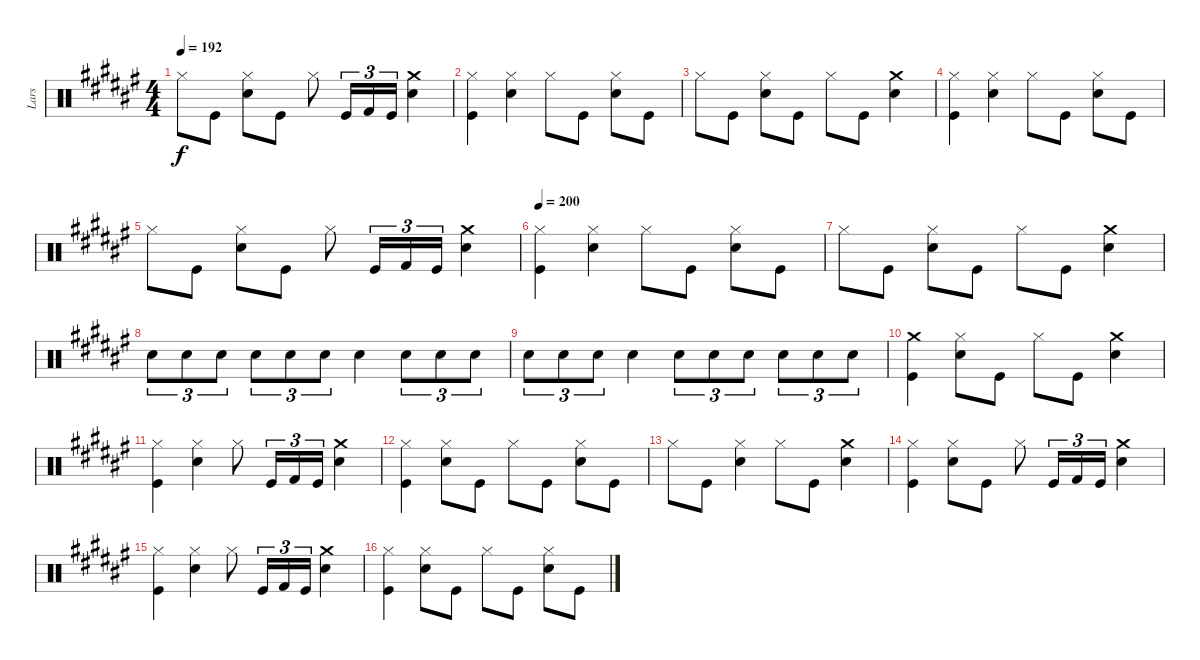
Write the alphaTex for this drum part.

\track ("Lars" "Lars") {instrument percussion}
\staff {score}
\articulation defaults
\ts (4 4)
\tempo 192
\clef neutral
\ks f# "Hi-Hat (closed)".8{dy f} "Kick (hit)".8
("Snare (hit) 2" "Hi-Hat (closed)").8 "Kick (hit)".8 "Hi-Hat (closed)".8 "Kick (hit)".16{tu (3 2)} "Kick (hit) 2".16{tu (3 2)} "Kick (hit)".16{tu (3 2)} ("Crash medium (hit)" "Snare (hit) 2").4 |
("Kick (hit)" "Hi-Hat (closed)").4 ("Hi-Hat (closed)" "Snare (hit) 2").4 "Hi-Hat (closed)".8 "Kick (hit)".8 ("Snare (hit) 2" "Hi-Hat (closed)").8 "Kick (hit)".8 |
"Hi-Hat (closed)".8 "Kick (hit)".8 ("Snare (hit) 2" "Hi-Hat (closed)").8 "Kick (hit)".8 "Hi-Hat (closed)".8 "Kick (hit)".8 ("Crash medium (hit)" "Snare (hit) 2").4 |
("Hi-Hat (closed)" "Kick (hit)").4 ("Snare (hit) 2" "Hi-Hat (closed)").4 "Hi-Hat (closed)".8 "Kick (hit)".8 ("Snare (hit) 2" "Hi-Hat (closed)").8 "Kick (hit)".8 |
"Hi-Hat (closed)".8 "Kick (hit)".8 ("Snare (hit) 2" "Hi-Hat (closed)").8 "Kick (hit)".8 "Hi-Hat (closed)".8 "Kick (hit)".16{tu (3 2)} "Kick (hit) 2".16{tu (3 2)} "Kick (hit)".16{tu (3 2)} ("Crash medium (hit)" "Snare (hit) 2").4 |
\tempo 200
("Kick (hit)" "Hi-Hat (closed)").4 ("Snare (hit) 2" "Hi-Hat (closed)").4 "Hi-Hat (closed)".8 "Kick (hit)".8 ("Snare (hit) 2" "Hi-Hat (closed)").8 "Kick (hit)".8 |
"Hi-Hat (closed)".8 "Kick (hit)".8 ("Snare (hit) 2" "Hi-Hat (closed)").8 "Kick (hit)".8 "Hi-Hat (closed)".8 "Kick (hit)".8 ("Crash medium (hit)" "Snare (hit) 2").4 |
"Snare (hit) 2".8{tu (3 2)} "Snare (hit) 2".8{tu (3 2)} "Snare (hit) 2".8{tu (3 2)} "Snare (hit) 2".8{tu (3 2)} "Snare (hit) 2".8{tu (3 2)} "Snare (hit) 2".8{tu (3 2)} "Snare (hit) 2".4 "Snare (hit) 2".8{tu (3 2)} "Snare (hit) 2".8{tu (3 2)} "Snare (hit) 2".8{tu (3 2)} |
"Snare (hit) 2".8{tu (3 2)} "Snare (hit) 2".8{tu (3 2)} "Snare (hit) 2".8{tu (3 2)} "Snare (hit) 2".4 "Snare (hit) 2".8{tu (3 2)} "Snare (hit) 2".8{tu (3 2)} "Snare (hit) 2".8{tu (3 2)} "Snare (hit) 2".8{tu (3 2)} "Snare (hit) 2".8{tu (3 2)} "Snare (hit) 2".8{tu (3 2)} |
("Kick (hit)" "Crash medium (hit)").4 ("Hi-Hat (closed)" "Snare (hit) 2").8 "Kick (hit)".8 "Hi-Hat (closed)".8 "Kick (hit)".8 ("Crash medium (hit)" "Snare (hit) 2").4 |
("Hi-Hat (closed)" "Kick (hit)").4 ("Snare (hit) 2" "Hi-Hat (closed)").4 "Hi-Hat (closed)".8 "Kick (hit)".16{tu (3 2)} "Kick (hit) 2".16{tu (3 2)} "Kick (hit)".16{tu (3 2)} ("Crash medium (hit)" "Snare (hit) 2").4 |
("Hi-Hat (closed)" "Kick (hit)").4 ("Snare (hit) 2" "Hi-Hat (closed)").8 "Kick (hit)".8 "Hi-Hat (closed)".8 "Kick (hit)".8 ("Snare (hit) 2" "Hi-Hat (closed)").8 "Kick (hit)".8 |
"Hi-Hat (closed)".8 "Kick (hit)".8 ("Snare (hit) 2" "Hi-Hat (closed)").4 "Hi-Hat (closed)".8 "Kick (hit)".8 ("Crash medium (hit)" "Snare (hit) 2").4 |
("Kick (hit)" "Hi-Hat (closed)").4 ("Snare (hit) 2" "Hi-Hat (closed)").8 "Kick (hit)".8 "Hi-Hat (closed)".8 "Kick (hit)".16{tu (3 2)} "Kick (hit) 2".16{tu (3 2)} "Kick (hit)".16{tu (3 2)} ("Crash medium (hit)" "Snare (hit) 2").4 |
("Hi-Hat (closed)" "Kick (hit)").4 ("Snare (hit) 2" "Hi-Hat (closed)").4 "Hi-Hat (closed)".8 "Kick (hit)".16{tu (3 2)} "Kick (hit) 2".16{tu (3 2)} "Kick (hit)".16{tu (3 2)} ("Crash medium (hit)" "Snare (hit) 2").4 |
("Hi-Hat (closed)" "Kick (hit)").4 ("Snare (hit) 2" "Hi-Hat (closed)").8 "Kick (hit)".8 "Hi-Hat (closed)".8 "Kick (hit)".8 ("Snare (hit) 2" "Hi-Hat (closed)").8 "Kick (hit)".8
